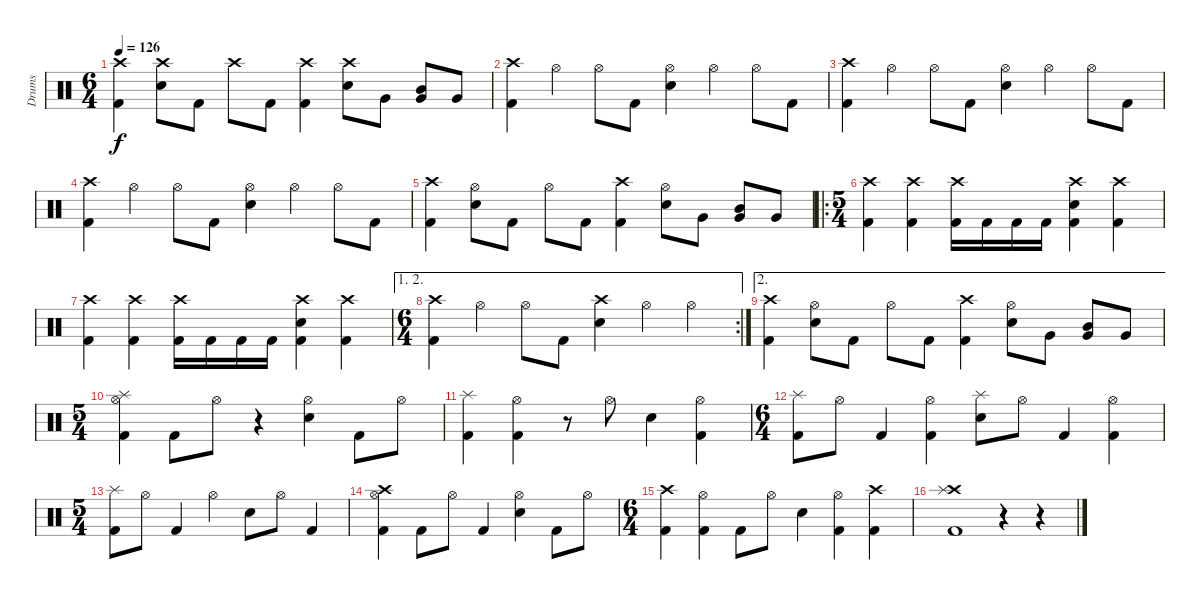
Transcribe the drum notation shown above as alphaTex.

\track ("Drums" "Drums") {instrument percussion}
\staff {score}
\articulation defaults
\ts (6 4)
\tempo 126
\clef neutral
\ks c
("Crash high (hit)" "Kick (hit) 2").4{dy f} ("Crash high (hit)" "Snare (hit) 2").8 "Kick (hit) 2".8 "Crash high (hit)".8 "Kick (hit) 2".8 ("Crash high (hit)" "Kick (hit) 2").4 ("Crash high (hit)" "Snare (hit) 2").8 "Very Low Tom (hit)".8 ("Mid Tom (hit)" "Very Low Tom (hit)").8 "Very Low Tom (hit)".8 |
("Crash high (hit)" "Kick (hit) 2").4 "Hi-Hat (open)".4 "Hi-Hat (open)".8 "Kick (hit) 2".8 ("Hi-Hat (open)" "Snare (hit) 2").4 "Hi-Hat (open)".4 "Hi-Hat (open)".8 "Kick (hit) 2".8 |
("Crash high (hit)" "Kick (hit) 2").4 "Hi-Hat (open)".4 "Hi-Hat (open)".8 "Kick (hit) 2".8 ("Hi-Hat (open)" "Snare (hit) 2").4 "Hi-Hat (open)".4 "Hi-Hat (open)".8 "Kick (hit) 2".8 |
("Crash high (hit)" "Kick (hit) 2").4 "Hi-Hat (open)".4 "Hi-Hat (open)".8 "Kick (hit) 2".8 ("Hi-Hat (open)" "Snare (hit) 2").4 "Hi-Hat (open)".4 "Hi-Hat (open)".8 "Kick (hit) 2".8 |
("Crash high (hit)" "Kick (hit) 2").4 ("Hi-Hat (open)" "Snare (hit) 2").8 "Kick (hit) 2".8 "Hi-Hat (open)".8 "Kick (hit) 2".8 ("Crash high (hit)" "Kick (hit) 2").4 ("Hi-Hat (open)" "Snare (hit) 2").8 "Very Low Tom (hit)".8 ("Mid Tom (hit)" "Very Low Tom (hit)").8 "Very Low Tom (hit)".8 |
\ro
\ts (5 4)
("Crash high (hit)" "Kick (hit) 2").4 ("Crash high (hit)" "Kick (hit) 2").4 ("Crash high (hit)" "Kick (hit) 2").16 "Kick (hit) 2".16 "Kick (hit) 2".16 "Kick (hit) 2".16 ("Crash high (hit)" "Snare (hit) 2" "Kick (hit) 2").4 ("Crash high (hit)" "Kick (hit) 2").4 |
("Crash high (hit)" "Kick (hit) 2").4 ("Crash high (hit)" "Kick (hit) 2").4 ("Crash high (hit)" "Kick (hit) 2").16 "Kick (hit) 2".16 "Kick (hit) 2".16 "Kick (hit) 2".16 ("Crash high (hit)" "Snare (hit) 2" "Kick (hit) 2").4 ("Crash high (hit)" "Kick (hit) 2").4 |
\ae (1 2)
\rc 2
\ts (6 4)
("Crash high (hit)" "Kick (hit) 2").4 "Hi-Hat (open)".4 "Hi-Hat (open)".8 "Kick (hit) 2".8 ("Crash high (hit)" "Snare (hit) 2").4 "Hi-Hat (open)".4 "Hi-Hat (open)".4 |
\ae 2
("Crash high (hit)" "Kick (hit) 2").4 ("Hi-Hat (open)" "Snare (hit) 2").8 "Kick (hit) 2".8 "Hi-Hat (open)".8 "Kick (hit) 2".8 ("Crash high (hit)" "Kick (hit) 2").4 ("Hi-Hat (open)" "Snare (hit) 2").8 "Very Low Tom (hit)".8 ("Mid Tom (hit)" "Very Low Tom (hit)").8 "Very Low Tom (hit)".8 |
\ts (5 4)
("Splash (hit)" "Hi-Hat (open)" "Kick (hit) 2").4 "Kick (hit) 2".8 "Hi-Hat (open)".8 r.4 ("Hi-Hat (open)" "Snare (hit) 2").4 "Kick (hit) 2".8 "Hi-Hat (open)".8 |
("Splash (hit)" "Kick (hit) 2").4 ("Hi-Hat (open)" "Kick (hit) 2").4 r.8 "Hi-Hat (open)".8 "Snare (hit) 2".4 ("Hi-Hat (open)" "Kick (hit) 2").4 |
\ts (6 4)
("Splash (hit)" "Kick (hit) 2").8 "Hi-Hat (open)".8 "Kick (hit) 2".4 ("Hi-Hat (open)" "Kick (hit) 2").4 ("Splash (hit)" "Snare (hit) 2").8 "Hi-Hat (open)".8 "Kick (hit) 2".4 ("Hi-Hat (open)" "Kick (hit) 2").4 |
\ts (5 4)
("Splash (hit)" "Kick (hit) 2").8 "Hi-Hat (open)".8 "Kick (hit) 2".4 "Hi-Hat (open)".4 "Snare (hit) 2".8 "Hi-Hat (open)".8 "Kick (hit) 2".4 |
("Crash high (hit)" "Hi-Hat (open)" "Kick (hit) 2").4 "Kick (hit) 2".8 "Hi-Hat (open)".8 "Kick (hit) 2".4 ("Hi-Hat (open)" "Snare (hit) 2").4 "Kick (hit) 2".8 "Hi-Hat (open)".8 |
\ts (6 4)
("Crash high (hit)" "Kick (hit) 2").4 ("Hi-Hat (open)" "Kick (hit) 2").4 "Kick (hit) 2".8 "Hi-Hat (open)".8 "Snare (hit) 2".4 ("Hi-Hat (open)" "Kick (hit) 2").4 ("Crash high (hit)" "Kick (hit) 2").4 |
("Crash high (hit)" "Splash (hit)" "Kick (hit) 2").1 r.4 r.4
